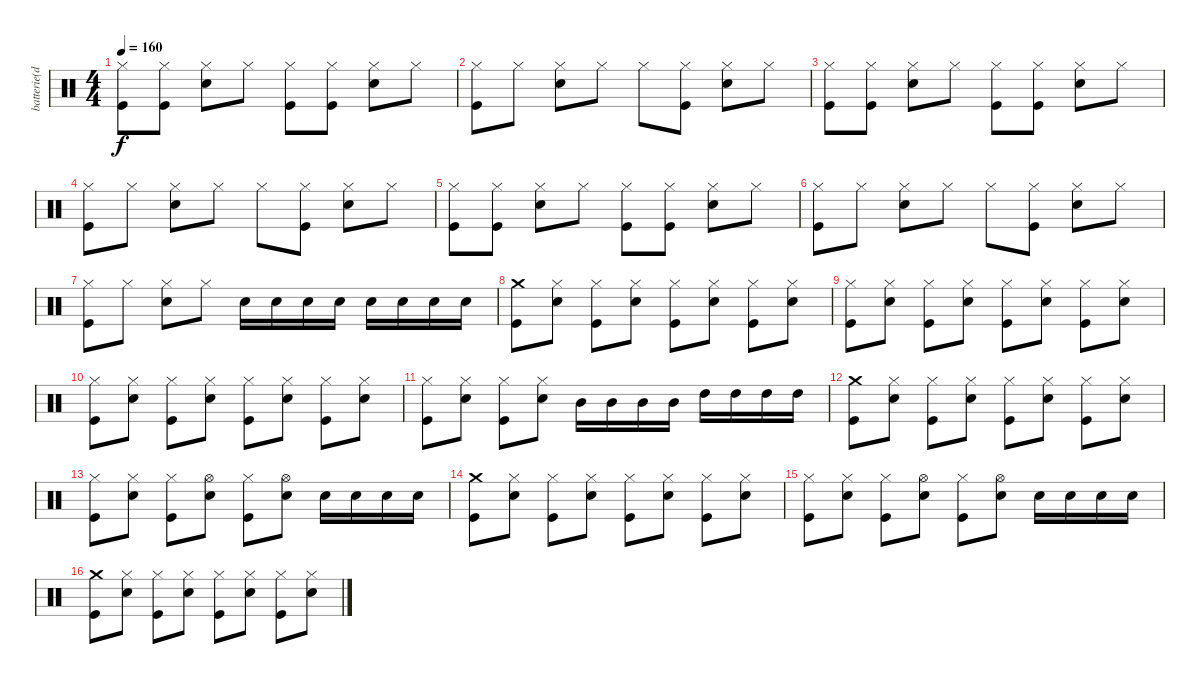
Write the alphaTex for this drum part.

\track ("batterie(dave)" "batterie(d") {instrument percussion}
\staff {score}
\articulation defaults
\ts (4 4)
\tempo 160
\clef neutral
\ks c
("Hi-Hat (closed)" "Kick (hit)").8{dy f} ("Hi-Hat (closed)" "Kick (hit)").8 ("Hi-Hat (closed)" "Snare (hit) 2").8 "Hi-Hat (closed)".8 ("Hi-Hat (closed)" "Kick (hit)").8 ("Hi-Hat (closed)" "Kick (hit)").8 ("Hi-Hat (closed)" "Snare (hit) 2").8 "Hi-Hat (closed)".8 |
("Hi-Hat (closed)" "Kick (hit)").8 "Hi-Hat (closed)".8 ("Hi-Hat (closed)" "Snare (hit) 2").8 "Hi-Hat (closed)".8 "Hi-Hat (closed)".8 ("Hi-Hat (closed)" "Kick (hit)").8 ("Hi-Hat (closed)" "Snare (hit) 2").8 "Hi-Hat (closed)".8 |
("Hi-Hat (closed)" "Kick (hit)").8 ("Hi-Hat (closed)" "Kick (hit)").8 ("Hi-Hat (closed)" "Snare (hit) 2").8 "Hi-Hat (closed)".8 ("Hi-Hat (closed)" "Kick (hit)").8 ("Hi-Hat (closed)" "Kick (hit)").8 ("Hi-Hat (closed)" "Snare (hit) 2").8 "Hi-Hat (closed)".8 |
("Hi-Hat (closed)" "Kick (hit)").8 "Hi-Hat (closed)".8 ("Hi-Hat (closed)" "Snare (hit) 2").8 "Hi-Hat (closed)".8 "Hi-Hat (closed)".8 ("Hi-Hat (closed)" "Kick (hit)").8 ("Hi-Hat (closed)" "Snare (hit) 2").8 "Hi-Hat (closed)".8 |
("Hi-Hat (closed)" "Kick (hit)").8 ("Hi-Hat (closed)" "Kick (hit)").8 ("Hi-Hat (closed)" "Snare (hit) 2").8 "Hi-Hat (closed)".8 ("Hi-Hat (closed)" "Kick (hit)").8 ("Hi-Hat (closed)" "Kick (hit)").8 ("Hi-Hat (closed)" "Snare (hit) 2").8 "Hi-Hat (closed)".8 |
("Hi-Hat (closed)" "Kick (hit)").8 "Hi-Hat (closed)".8 ("Hi-Hat (closed)" "Snare (hit) 2").8 "Hi-Hat (closed)".8 "Hi-Hat (closed)".8 ("Hi-Hat (closed)" "Kick (hit)").8 ("Hi-Hat (closed)" "Snare (hit) 2").8 "Hi-Hat (closed)".8 |
("Hi-Hat (closed)" "Kick (hit)").8 "Hi-Hat (closed)".8 ("Hi-Hat (closed)" "Snare (hit) 2").8 "Hi-Hat (closed)".8 "Snare (hit) 2".16 "Snare (hit) 2".16 "Snare (hit) 2".16 "Snare (hit) 2".16 "Snare (hit) 2".16 "Snare (hit) 2".16 "Snare (hit) 2".16 "Snare (hit) 2".16 |
("Crash medium (hit)" "Kick (hit)").8 ("Hi-Hat (closed)" "Snare (hit) 2").8 ("Hi-Hat (closed)" "Kick (hit)").8 ("Hi-Hat (closed)" "Snare (hit) 2").8 ("Hi-Hat (closed)" "Kick (hit)").8 ("Hi-Hat (closed)" "Snare (hit) 2").8 ("Hi-Hat (closed)" "Kick (hit)").8 ("Hi-Hat (closed)" "Snare (hit) 2").8 |
("Hi-Hat (closed)" "Kick (hit)").8 ("Hi-Hat (closed)" "Snare (hit) 2").8 ("Hi-Hat (closed)" "Kick (hit)").8 ("Hi-Hat (closed)" "Snare (hit) 2").8 ("Hi-Hat (closed)" "Kick (hit)").8 ("Hi-Hat (closed)" "Snare (hit) 2").8 ("Hi-Hat (closed)" "Kick (hit)").8 ("Hi-Hat (closed)" "Snare (hit) 2").8 |
("Hi-Hat (closed)" "Kick (hit)").8 ("Hi-Hat (closed)" "Snare (hit) 2").8 ("Hi-Hat (closed)" "Kick (hit)").8 ("Hi-Hat (closed)" "Snare (hit) 2").8 ("Hi-Hat (closed)" "Kick (hit)").8 ("Hi-Hat (closed)" "Snare (hit) 2").8 ("Hi-Hat (closed)" "Kick (hit)").8 ("Hi-Hat (closed)" "Snare (hit) 2").8 |
("Hi-Hat (closed)" "Kick (hit)").8 ("Hi-Hat (closed)" "Snare (hit) 2").8 ("Hi-Hat (closed)" "Kick (hit)").8 ("Hi-Hat (closed)" "Snare (hit) 2").8 "Mid Tom (hit)".16 "Mid Tom (hit)".16 "Mid Tom (hit)".16 "Mid Tom (hit)".16 "High Tom (hit)".16 "High Tom (hit)".16 "High Tom (hit)".16 "High Tom (hit)".16 |
("Crash medium (hit)" "Kick (hit)").8 ("Hi-Hat (closed)" "Snare (hit) 2").8 ("Hi-Hat (closed)" "Kick (hit)").8 ("Hi-Hat (closed)" "Snare (hit) 2").8 ("Hi-Hat (closed)" "Kick (hit)").8 ("Hi-Hat (closed)" "Snare (hit) 2").8 ("Hi-Hat (closed)" "Kick (hit)").8 ("Hi-Hat (closed)" "Snare (hit) 2").8 |
("Hi-Hat (closed)" "Kick (hit)").8 ("Hi-Hat (closed)" "Snare (hit) 2").8 ("Hi-Hat (closed)" "Kick (hit)").8 ("Hi-Hat (open)" "Snare (hit) 2").8 ("Hi-Hat (closed)" "Kick (hit)").8 ("Hi-Hat (open)" "Snare (hit) 2").8 "Snare (hit) 2".16 "Snare (hit) 2".16 "Snare (hit) 2".16 "Snare (hit) 2".16 |
("Crash medium (hit)" "Kick (hit)").8 ("Hi-Hat (closed)" "Snare (hit) 2").8 ("Hi-Hat (closed)" "Kick (hit)").8 ("Hi-Hat (closed)" "Snare (hit) 2").8 ("Hi-Hat (closed)" "Kick (hit)").8 ("Hi-Hat (closed)" "Snare (hit) 2").8 ("Hi-Hat (closed)" "Kick (hit)").8 ("Hi-Hat (closed)" "Snare (hit) 2").8 |
("Hi-Hat (closed)" "Kick (hit)").8 ("Hi-Hat (closed)" "Snare (hit) 2").8 ("Hi-Hat (closed)" "Kick (hit)").8 ("Hi-Hat (open)" "Snare (hit) 2").8 ("Hi-Hat (closed)" "Kick (hit)").8 ("Hi-Hat (open)" "Snare (hit) 2").8 "Snare (hit) 2".16 "Snare (hit) 2".16 "Snare (hit) 2".16 "Snare (hit) 2".16 |
("Crash medium (hit)" "Kick (hit)").8 ("Hi-Hat (closed)" "Snare (hit) 2").8 ("Hi-Hat (closed)" "Kick (hit)").8 ("Hi-Hat (closed)" "Snare (hit) 2").8 ("Hi-Hat (closed)" "Kick (hit)").8 ("Hi-Hat (closed)" "Snare (hit) 2").8 ("Hi-Hat (closed)" "Kick (hit)").8 ("Hi-Hat (closed)" "Snare (hit) 2").8
